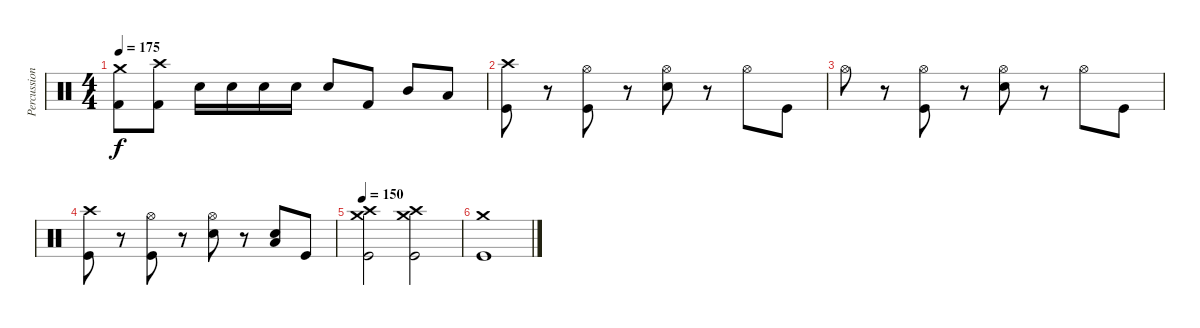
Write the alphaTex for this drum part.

\track ("Percussion" "Percussion") {instrument percussion}
\staff {score}
\articulation defaults
\ts (4 4)
\tempo 175
\clef neutral
\ks c
("Crash medium (hit)" "Kick (hit) 2").8{dy f} ("Crash high (hit)" "Kick (hit) 2").8 "Electric Snare (hit)".16 "Electric Snare (hit)".16 "Electric Snare (hit)".16 "Electric Snare (hit)".16 "Electric Snare (hit)".8 "Kick (hit) 2".8 "Mid Tom (hit)".8 "Low Tom (hit)".8 |
("Crash high (hit)" "Kick (hit)").8 r.8 ("Hi-Hat (open)" "Kick (hit)").8 r.8 ("Hi-Hat (open)" "Electric Snare (hit)").8 r.8 "Hi-Hat (open)".8 "Kick (hit)".8 |
"Hi-Hat (open)".8 r.8 ("Hi-Hat (open)" "Kick (hit)").8 r.8 ("Hi-Hat (open)" "Electric Snare (hit)").8 r.8 "Hi-Hat (open)".8 "Kick (hit)".8 |
("Crash high (hit)" "Kick (hit)").8 r.8 ("Hi-Hat (open)" "Kick (hit)").8 r.8 ("Hi-Hat (open)" "Electric Snare (hit)").8 r.8 ("Low Tom (hit)" "Electric Snare (hit)").8 "Kick (hit)".8 |
\tempo 150
("Crash high (hit)" "Crash medium (hit)" "Kick (hit)").2 ("Crash high (hit)" "Crash medium (hit)" "Kick (hit)").2 |
("Crash medium (hit)" "Kick (hit)").1
